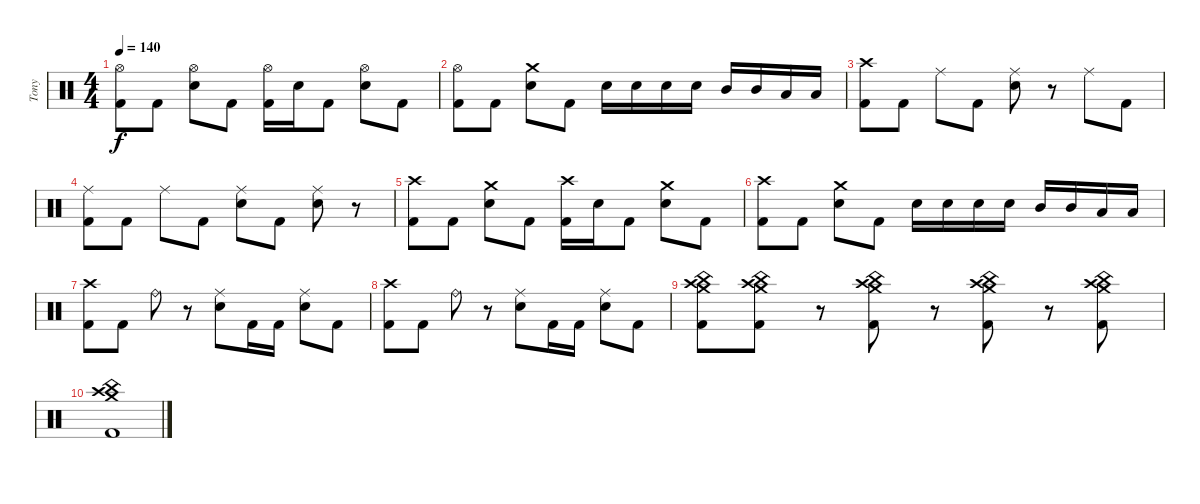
\track ("Tony" "Tony") {instrument percussion}
\staff {score}
\articulation defaults
\ts (4 4)
\tempo 140
\clef neutral
\ks c
("Kick (hit) 2" "Hi-Hat (open)").8{dy f} "Kick (hit) 2".8 ("Electric Snare (hit)" "Hi-Hat (open)").8 "Kick (hit) 2".8 ("Kick (hit) 2" "Hi-Hat (open)").16 "Electric Snare (hit)".16 "Kick (hit) 2".8 ("Electric Snare (hit)" "Hi-Hat (open)").8 "Kick (hit) 2".8 |
("Kick (hit) 2" "Hi-Hat (open)").8 "Kick (hit) 2".8 ("Electric Snare (hit)" "Crash medium (hit)").8 "Kick (hit) 2".8 "Electric Snare (hit)".16 "Electric Snare (hit)".16 "Electric Snare (hit)".16 "Electric Snare (hit)".16 "Mid Tom (hit)".16 "Mid Tom (hit)".16 "Low Tom (hit)".16 "Low Tom (hit)".16 |
("Crash high (hit)" "Kick (hit) 2").8 "Kick (hit) 2".8 "Ride (middle)".8 "Kick (hit) 2".8 ("Ride (middle)" "Electric Snare (hit)").8 r.8 "Ride (middle)".8 "Kick (hit) 2".8 |
("Ride (middle)" "Kick (hit) 2").8 "Kick (hit) 2".8 "Ride (middle)".8 "Kick (hit) 2".8 ("Ride (middle)" "Electric Snare (hit)").8 "Kick (hit) 2".8 ("Ride (middle)" "Electric Snare (hit)").8 r.8 |
("Kick (hit) 2" "Crash high (hit)").8 "Kick (hit) 2".8 ("Electric Snare (hit)" "Crash medium (hit)").8 "Kick (hit) 2".8 ("Kick (hit) 2" "Crash high (hit)").16 "Electric Snare (hit)".16 "Kick (hit) 2".8 ("Electric Snare (hit)" "Crash medium (hit)").8 "Kick (hit) 2".8 |
("Kick (hit) 2" "Crash high (hit)").8 "Kick (hit) 2".8 ("Electric Snare (hit)" "Crash medium (hit)").8 "Kick (hit) 2".8 "Electric Snare (hit)".16 "Electric Snare (hit)".16 "Electric Snare (hit)".16 "Electric Snare (hit)".16 "Mid Tom (hit)".16 "Mid Tom (hit)".16 "Low Tom (hit)".16 "Low Tom (hit)".16 |
("Crash high (hit)" "Kick (hit) 2").8 "Kick (hit) 2".8 "Ride (bell)".8 r.8 ("Ride (middle)" "Electric Snare (hit)").8 "Kick (hit) 2".16 "Kick (hit) 2".16 ("Ride (middle)" "Electric Snare (hit)").8 "Kick (hit) 2".8 |
("Crash high (hit)" "Kick (hit) 2").8 "Kick (hit) 2".8 "Ride (bell)".8 r.8 ("Ride (middle)" "Electric Snare (hit)").8 "Kick (hit) 2".16 "Kick (hit) 2".16 ("Ride (middle)" "Electric Snare (hit)").8 "Kick (hit) 2".8 |
("China (hit)" "Crash medium (hit)" "Crash high (hit)" "Kick (hit) 2").8 ("China (hit)" "Crash medium (hit)" "Crash high (hit)" "Kick (hit) 2").8 r.8 ("China (hit)" "Crash high (hit)" "Crash medium (hit)" "Kick (hit) 2").8 r.8 ("China (hit)" "Crash high (hit)" "Crash medium (hit)" "Kick (hit) 2").8 r.8 ("China (hit)" "Crash high (hit)" "Crash medium (hit)" "Kick (hit) 2").8 |
("China (hit)" "Crash high (hit)" "Crash medium (hit)" "Kick (hit) 2").1
